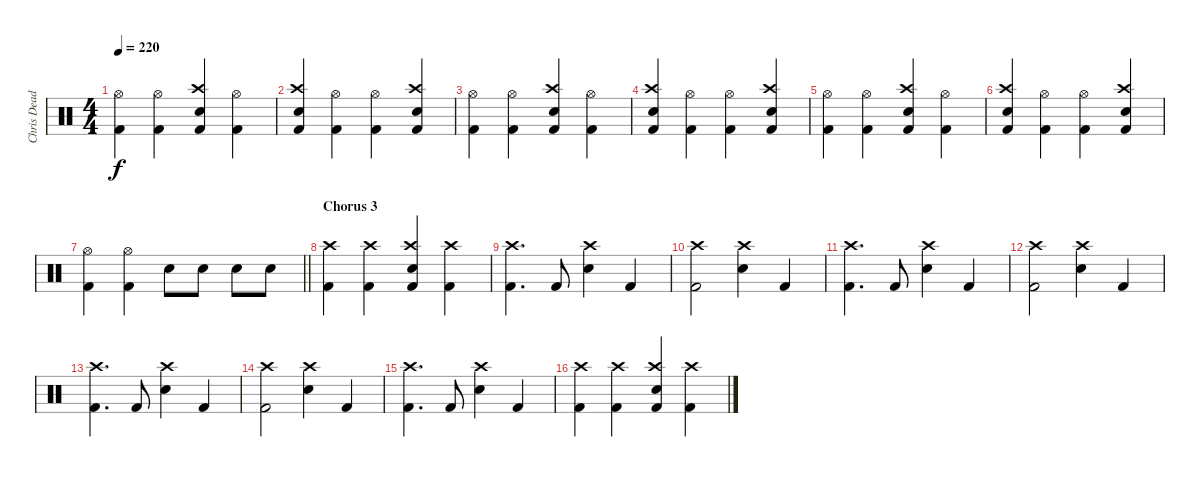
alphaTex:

\track ("Chris Dead" "Chris Dead") {instrument percussion}
\staff {score}
\articulation defaults
\ts (4 4)
\tempo 220
\clef neutral
\ks c
("Hi-Hat (open)" "Kick (hit) 2").4{dy f} ("Hi-Hat (open)" "Kick (hit) 2").4 ("Crash high (hit)" "Electric Snare (hit)" "Kick (hit) 2").4 ("Hi-Hat (open)" "Kick (hit) 2").4 |
("Crash high (hit)" "Electric Snare (hit)" "Kick (hit) 2").4 ("Hi-Hat (open)" "Kick (hit) 2").4 ("Hi-Hat (open)" "Kick (hit) 2").4 ("Crash high (hit)" "Electric Snare (hit)" "Kick (hit) 2").4 |
("Hi-Hat (open)" "Kick (hit) 2").4 ("Hi-Hat (open)" "Kick (hit) 2").4 ("Crash high (hit)" "Electric Snare (hit)" "Kick (hit) 2").4 ("Hi-Hat (open)" "Kick (hit) 2").4 |
("Crash high (hit)" "Electric Snare (hit)" "Kick (hit) 2").4 ("Hi-Hat (open)" "Kick (hit) 2").4 ("Hi-Hat (open)" "Kick (hit) 2").4 ("Crash high (hit)" "Electric Snare (hit)" "Kick (hit) 2").4 |
("Hi-Hat (open)" "Kick (hit) 2").4 ("Hi-Hat (open)" "Kick (hit) 2").4 ("Crash high (hit)" "Electric Snare (hit)" "Kick (hit) 2").4 ("Hi-Hat (open)" "Kick (hit) 2").4 |
("Crash high (hit)" "Electric Snare (hit)" "Kick (hit) 2").4 ("Hi-Hat (open)" "Kick (hit) 2").4 ("Hi-Hat (open)" "Kick (hit) 2").4 ("Crash high (hit)" "Electric Snare (hit)" "Kick (hit) 2").4 |
\barLineRight lightlight
("Hi-Hat (open)" "Kick (hit) 2").4 ("Hi-Hat (open)" "Kick (hit) 2").4 "Electric Snare (hit)".8 "Electric Snare (hit)".8 "Electric Snare (hit)".8 "Electric Snare (hit)".8 |
\section ("" "Chorus 3")
("Crash high (hit)" "Kick (hit) 2").4 ("Crash high (hit)" "Kick (hit) 2").4 ("Crash high (hit)" "Electric Snare (hit)" "Kick (hit) 2").4 ("Crash high (hit)" "Kick (hit) 2").4 |
("Crash high (hit)" "Kick (hit) 2").4{d} "Kick (hit) 2".8 ("Crash high (hit)" "Electric Snare (hit)").4 "Kick (hit) 2".4 |
("Crash high (hit)" "Kick (hit) 2").2 ("Crash high (hit)" "Electric Snare (hit)").4 "Kick (hit) 2".4 |
("Crash high (hit)" "Kick (hit) 2").4{d} "Kick (hit) 2".8 ("Crash high (hit)" "Electric Snare (hit)").4 "Kick (hit) 2".4 |
("Crash high (hit)" "Kick (hit) 2").2 ("Crash high (hit)" "Electric Snare (hit)").4 "Kick (hit) 2".4 |
("Crash high (hit)" "Kick (hit) 2").4{d} "Kick (hit) 2".8 ("Crash high (hit)" "Electric Snare (hit)").4 "Kick (hit) 2".4 |
("Crash high (hit)" "Kick (hit) 2").2 ("Crash high (hit)" "Electric Snare (hit)").4 "Kick (hit) 2".4 |
("Crash high (hit)" "Kick (hit) 2").4{d} "Kick (hit) 2".8 ("Crash high (hit)" "Electric Snare (hit)").4 "Kick (hit) 2".4 |
("Crash high (hit)" "Kick (hit) 2").4 ("Crash high (hit)" "Kick (hit) 2").4 ("Crash high (hit)" "Electric Snare (hit)" "Kick (hit) 2").4 ("Crash high (hit)" "Kick (hit) 2").4
